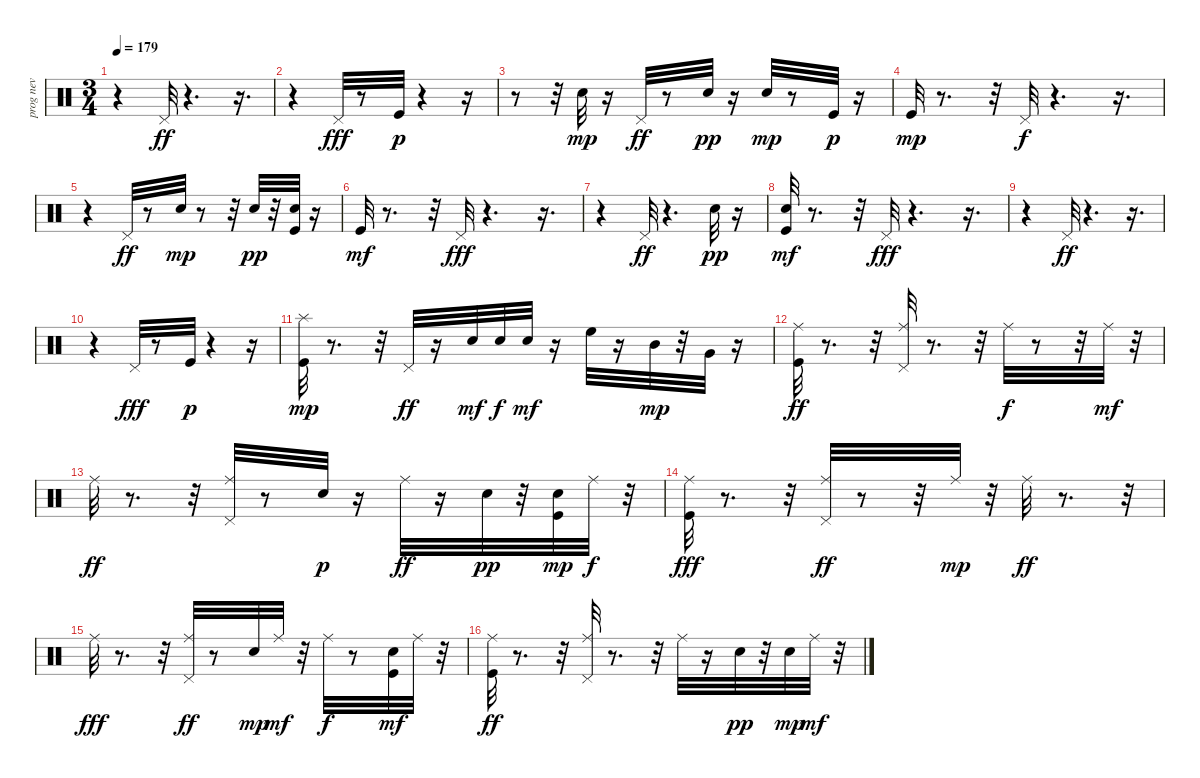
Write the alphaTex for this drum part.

\track ("prog nev" "prog nev") {instrument percussion}
\staff {score}
\articulation defaults
\ts (3 4)
\tempo 179
\clef neutral
\ks c
r.4{dy fff} "Pedal Hi-Hat (hit)".32{dy ff} r.4{d} r.16{d} |
r.4 "Pedal Hi-Hat (hit)".32{dy fff} r.8 "Kick (hit)".32{dy p} r.4 r.16 |
r.8 r.32 "Snare (hit) 2".32{dy mp} r.16 "Pedal Hi-Hat (hit)".32{dy ff} r.8 "Snare (hit) 2".32{dy pp} r.16 "Hand Clap (hit)".32{dy mp} r.8 "Kick (hit)".32{dy p} r.16 |
"Kick (hit)".32{dy mp} r.8{d} r.32 "Pedal Hi-Hat (hit)".32{dy f} r.4{d} r.16{d} |
r.4 "Pedal Hi-Hat (hit)".32{dy ff} r.8 "Hand Clap (hit)".32{dy mp} r.8 r.32 "Snare (hit) 2".32{dy pp} r.32 ("Kick (hit)" "Snare (hit) 2").32 r.16 |
"Kick (hit)".32{dy mf} r.8{d} r.32 "Pedal Hi-Hat (hit)".32{dy fff} r.4{d} r.16{d} |
r.4 "Pedal Hi-Hat (hit)".32{dy ff} r.4{d} "Snare (hit) 2".32{dy pp} r.16 |
("Kick (hit)" "Snare (hit) 2").32{dy mf} r.8{d} r.32 "Pedal Hi-Hat (hit)".32{dy fff} r.4{d} r.16{d} |
r.4 "Pedal Hi-Hat (hit)".32{dy ff} r.4{d} r.16{d} |
r.4 "Pedal Hi-Hat (hit)".32{dy fff} r.8 "Kick (hit)".32{dy p} r.4 r.16 |
("Kick (hit)" "Splash (hit)").32{dy mp} r.8{d} r.32 "Pedal Hi-Hat (hit)".32{dy ff} r.16 "Snare (hit) 2".32{dy mf} "Snare (hit) 2".32{dy f} "Hand Clap (hit)".32{dy mf} r.16 "High Floor Tom (hit)".32 r.16 "Mid Tom (hit)".32{dy mp} r.32 "Very Low Tom (hit)".32 r.16 |
("Kick (hit)" "Ride (middle)").32{dy ff} r.8{d} r.32 ("Pedal Hi-Hat (hit)" "Ride (middle)").32 r.8{d} r.32 "Ride (middle)".32{dy f} r.8 r.32 "Ride (middle)".32{dy mf} r.32 |
"Ride (middle)".32{dy ff} r.8{d} r.32 ("Pedal Hi-Hat (hit)" "Ride (middle)").32 r.8 "Hand Clap (hit)".32{dy p} r.16 "Ride (middle)".32{dy ff} r.16 "Snare (hit) 2".32{dy pp} r.32 ("Kick (hit)" "Snare (hit) 2").32{dy mp} "Ride (middle)".32{dy f} r.32 |
("Kick (hit)" "Ride (middle)").32{dy fff} r.8{d} r.32 ("Pedal Hi-Hat (hit)" "Ride (middle)").32{dy ff} r.8 r.32 "Ride (middle)".32{dy mp} r.32 "Ride (middle)".32{dy ff} r.8{d} r.32 |
"Ride (middle)".32{dy fff} r.8{d} r.32 ("Pedal Hi-Hat (hit)" "Ride (middle)").32{dy ff} r.8 "Snare (hit) 2".32{dy mp} "Ride (middle)".32{dy mf} r.32 "Ride (middle)".32{dy f} r.8 ("Kick (hit)" "Snare (hit) 2").32{dy mf} "Ride (middle)".32 r.32 |
("Kick (hit)" "Ride (middle)").32{dy ff} r.8{d} r.32 ("Pedal Hi-Hat (hit)" "Ride (middle)").32 r.8{d} r.32 "Ride (middle)".32 r.16 "Snare (hit) 2".32{dy pp} r.32 "Snare (hit) 2".32{dy mp} "Ride (middle)".32{dy mf} r.32
